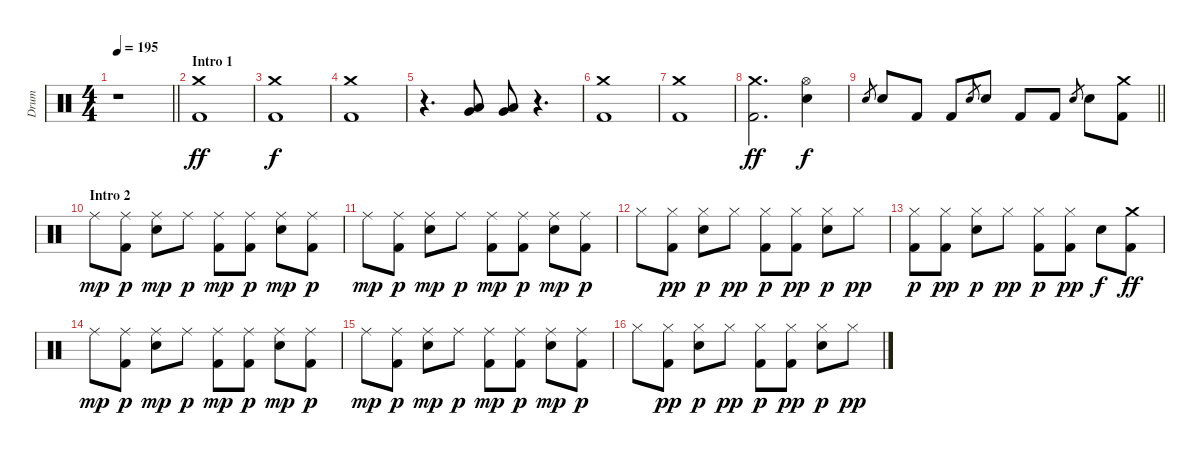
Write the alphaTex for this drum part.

\track ("Drum" "Drum") {instrument percussion}
\staff {score}
\articulation defaults
\ts (4 4)
\tempo 195
\clef neutral
\barLineRight lightlight
\ks c
r.1{dy ff} |
\section ("" "Intro 1")
("Crash medium (hit)" "Kick (hit) 2").1 |
("Crash medium (hit)" "Kick (hit) 2").1{dy f} |
("Crash medium (hit)" "Kick (hit) 2").1 |
r.4{d} ("Very Low Tom (hit)" "Low Floor Tom (hit)").8 ("Very Low Tom (hit)" "Low Floor Tom (hit)").8 r.4{d} |
("Crash medium (hit)" "Kick (hit) 2").1 |
("Crash medium (hit)" "Kick (hit) 2").1 |
("Crash medium (hit)" "Kick (hit) 2").2{d dy ff} ("Hi-Hat (open)" "Electric Snare (hit)").4{dy f} |
\barLineRight lightlight "Electric Snare (hit)".8{gr} "Electric Snare (hit)".8 "Kick (hit) 2".8 "Kick (hit) 2".8 "Electric Snare (hit)".8{gr} "Electric Snare (hit)".8 "Kick (hit) 2".8 "Kick (hit) 2".8 "Electric Snare (hit)".8{gr} "Electric Snare (hit)".8
("Crash medium (hit)" "Kick (hit) 2").8 |
\section ("" "Intro 2")
"Ride (middle)".8{dy mp} ("Ride (middle)" "Kick (hit) 2").8{dy p} ("Ride (middle)" "Electric Snare (hit)").8{dy mp} "Ride (middle)".8{dy p} ("Ride (middle)" "Kick (hit) 2").8{dy mp} ("Ride (middle)" "Kick (hit) 2").8{dy p} ("Ride (middle)" "Electric Snare (hit)").8{dy mp} ("Ride (middle)" "Kick (hit) 2").8{dy p} |
"Ride (middle)".8{dy mp} ("Ride (middle)" "Kick (hit) 2").8{dy p} ("Ride (middle)" "Electric Snare (hit)").8{dy mp} "Ride (middle)".8{dy p} ("Ride (middle)" "Kick (hit) 2").8{dy mp} ("Ride (middle)" "Kick (hit) 2").8{dy p} ("Ride (middle)" "Electric Snare (hit)").8{dy mp} ("Ride (middle)" "Kick (hit) 2").8{dy p} |
"Hi-Hat (closed)".8 ("Hi-Hat (closed)" "Kick (hit) 2").8{dy pp} ("Hi-Hat (closed)" "Electric Snare (hit)").8{dy p} "Hi-Hat (closed)".8{dy pp} ("Hi-Hat (closed)" "Kick (hit) 2").8{dy p} ("Hi-Hat (closed)" "Kick (hit) 2").8{dy pp} ("Hi-Hat (closed)" "Electric Snare (hit)").8{dy p} "Hi-Hat (closed)".8{dy pp} |
("Hi-Hat (closed)" "Kick (hit) 2").8{dy p} ("Hi-Hat (closed)" "Kick (hit) 2").8{dy pp} ("Hi-Hat (closed)" "Electric Snare (hit)").8{dy p} "Hi-Hat (closed)".8{dy pp} ("Hi-Hat (closed)" "Kick (hit) 2").8{dy p} ("Hi-Hat (closed)" "Kick (hit) 2").8{dy pp} "Electric Snare (hit)".8{dy f} ("Crash medium (hit)" "Kick (hit) 2").8{dy ff} |
"Ride (middle)".8{dy mp} ("Ride (middle)" "Kick (hit) 2").8{dy p} ("Ride (middle)" "Electric Snare (hit)").8{dy mp} "Ride (middle)".8{dy p} ("Ride (middle)" "Kick (hit) 2").8{dy mp} ("Ride (middle)" "Kick (hit) 2").8{dy p} ("Ride (middle)" "Electric Snare (hit)").8{dy mp} ("Ride (middle)" "Kick (hit) 2").8{dy p} |
"Ride (middle)".8{dy mp} ("Ride (middle)" "Kick (hit) 2").8{dy p} ("Ride (middle)" "Electric Snare (hit)").8{dy mp} "Ride (middle)".8{dy p} ("Ride (middle)" "Kick (hit) 2").8{dy mp} ("Ride (middle)" "Kick (hit) 2").8{dy p} ("Ride (middle)" "Electric Snare (hit)").8{dy mp} ("Ride (middle)" "Kick (hit) 2").8{dy p} |
"Hi-Hat (closed)".8 ("Hi-Hat (closed)" "Kick (hit) 2").8{dy pp} ("Hi-Hat (closed)" "Electric Snare (hit)").8{dy p} "Hi-Hat (closed)".8{dy pp} ("Hi-Hat (closed)" "Kick (hit) 2").8{dy p} ("Hi-Hat (closed)" "Kick (hit) 2").8{dy pp} ("Hi-Hat (closed)" "Electric Snare (hit)").8{dy p} "Hi-Hat (closed)".8{dy pp}
